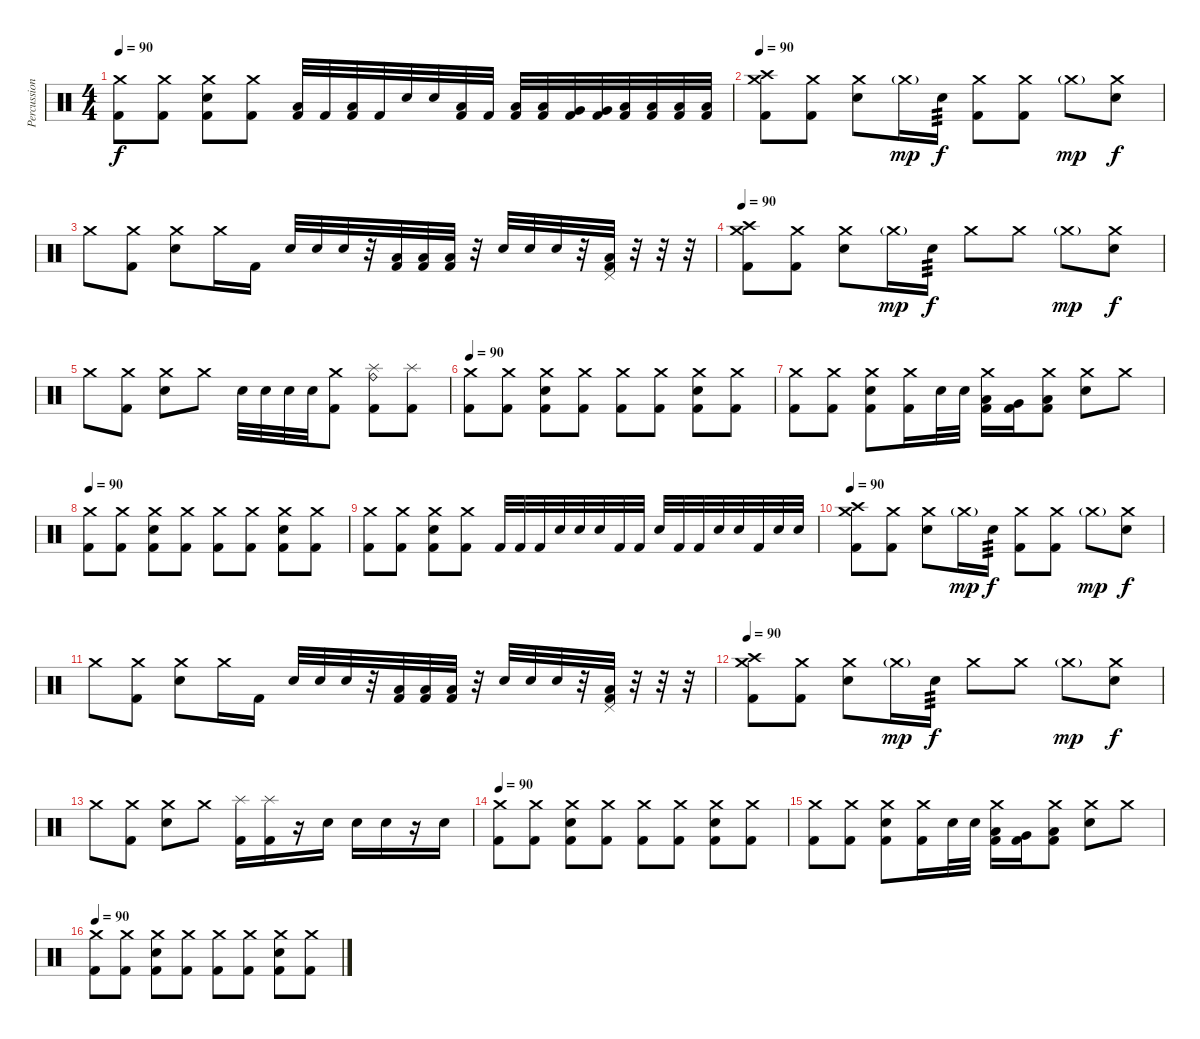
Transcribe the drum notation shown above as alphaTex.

\track ("Percussions" "Percussion") {instrument percussion}
\staff {score}
\articulation defaults
\ts (4 4)
\tempo 90
\clef neutral
\ks c
("Crash medium (hit)" "Kick (hit) 2").8{dy f} ("Crash medium (hit)" "Kick (hit) 2").8 ("Crash medium (hit)" "Electric Snare (hit)" "Kick (hit) 2").8 ("Crash medium (hit)" "Kick (hit) 2").8 ("Low Floor Tom (hit)" "Kick (hit) 2").32 "Kick (hit) 2".32 ("Low Floor Tom (hit)" "Kick (hit) 2").32 "Kick (hit) 2".32 "Electric Snare (hit)".32 "Electric Snare (hit)".32 ("Low Floor Tom (hit)" "Kick (hit) 2").32 "Kick (hit) 2".32 ("Low Tom (hit)" "Kick (hit) 2").32 ("Low Tom (hit)" "Kick (hit) 2").32 ("Very Low Tom (hit)" "Kick (hit) 2").32 ("Very Low Tom (hit)" "Kick (hit) 2").32 ("Low Floor Tom (hit)" "Kick (hit) 2").32 ("Low Floor Tom (hit)" "Kick (hit) 2").32 ("Low Floor Tom (hit)" "Kick (hit) 2").32 ("Low Floor Tom (hit)" "Kick (hit) 2").32 |
\tempo 90
("Crash medium (hit)" "Crash high (hit)" "Kick (hit) 2").8 ("Crash medium (hit)" "Kick (hit) 2").8 ("Crash medium (hit)" "Electric Snare (hit)").8 "Crash medium (hit)"{g}.16{dy mp} "Electric Snare (hit)".16{tp 3 dy f} ("Crash medium (hit)" "Kick (hit) 2").8 ("Crash medium (hit)" "Kick (hit) 2").8 "Crash medium (hit)"{g}.8{dy mp} ("Crash medium (hit)" "Electric Snare (hit)").8{dy f} |
"Crash medium (hit)".8 ("Crash medium (hit)" "Kick (hit) 2").8 ("Crash medium (hit)" "Electric Snare (hit)").8 "Crash medium (hit)".16 "Kick (hit) 2".16 "Electric Snare (hit)".32 "Electric Snare (hit)".32 "Electric Snare (hit)".32 r.32 ("Low Floor Tom (hit)" "Kick (hit) 2").32 ("Low Floor Tom (hit)" "Kick (hit) 2").32 ("Low Floor Tom (hit)" "Kick (hit) 2").32 r.32 "Electric Snare (hit)".32 "Electric Snare (hit)".32 "Electric Snare (hit)".32 r.32 ("Pedal Hi-Hat (hit)" "Low Floor Tom (hit)" "Kick (hit) 2").32 r.32 r.32 r.32 |
\tempo 90
("Crash medium (hit)" "Crash high (hit)" "Kick (hit) 2").8 ("Crash medium (hit)" "Kick (hit) 2").8 ("Crash medium (hit)" "Electric Snare (hit)").8 "Crash medium (hit)"{g}.16{dy mp} "Electric Snare (hit)".16{tp 3 dy f} "Crash medium (hit)".8 "Crash medium (hit)".8 "Crash medium (hit)"{g}.8{dy mp} ("Crash medium (hit)" "Electric Snare (hit)").8{dy f} |
"Crash medium (hit)".8 ("Crash medium (hit)" "Kick (hit) 2").8 ("Crash medium (hit)" "Electric Snare (hit)").8 "Crash medium (hit)".8 "Electric Snare (hit)".32 "Electric Snare (hit)".32 "Electric Snare (hit)".32 "Electric Snare (hit)".32 ("Crash medium (hit)" "Kick (hit) 2").8 ("Splash (hit)" "Ride (bell)" "Kick (hit) 2").8 ("Splash (hit)" "Kick (hit) 2").8 |
\tempo 90
("Crash medium (hit)" "Kick (hit) 2").8 ("Crash medium (hit)" "Kick (hit) 2").8 ("Crash medium (hit)" "Electric Snare (hit)" "Kick (hit) 2").8 ("Crash medium (hit)" "Kick (hit) 2").8 ("Crash medium (hit)" "Kick (hit) 2").8 ("Crash medium (hit)" "Kick (hit) 2").8 ("Crash medium (hit)" "Electric Snare (hit)" "Kick (hit) 2").8 ("Crash medium (hit)" "Kick (hit) 2").8 |
("Crash medium (hit)" "Kick (hit) 2").8 ("Crash medium (hit)" "Kick (hit) 2").8 ("Crash medium (hit)" "Electric Snare (hit)" "Kick (hit) 2").8 ("Crash medium (hit)" "Kick (hit) 2").16 "Electric Snare (hit)".32 "Electric Snare (hit)".32 ("Crash medium (hit)" "Low Tom (hit)" "Kick (hit) 2").16 ("Very Low Tom (hit)" "Kick (hit) 2").16 ("Crash medium (hit)" "Low Floor Tom (hit)" "Kick (hit) 2").8 ("Crash medium (hit)" "Electric Snare (hit)").8 "Crash medium (hit)".8 |
\tempo 90
("Crash medium (hit)" "Kick (hit) 2").8 ("Crash medium (hit)" "Kick (hit) 2").8 ("Crash medium (hit)" "Electric Snare (hit)" "Kick (hit) 2").8 ("Crash medium (hit)" "Kick (hit) 2").8 ("Crash medium (hit)" "Kick (hit) 2").8 ("Crash medium (hit)" "Kick (hit) 2").8 ("Crash medium (hit)" "Electric Snare (hit)" "Kick (hit) 2").8 ("Crash medium (hit)" "Kick (hit) 2").8 |
("Crash medium (hit)" "Kick (hit) 2").8 ("Crash medium (hit)" "Kick (hit) 2").8 ("Crash medium (hit)" "Electric Snare (hit)" "Kick (hit) 2").8 ("Crash medium (hit)" "Kick (hit) 2").8 "Kick (hit) 2".32 "Kick (hit) 2".32 "Kick (hit) 2".32 "Electric Snare (hit)".32 "Electric Snare (hit)".32 "Electric Snare (hit)".32 "Kick (hit) 2".32 "Kick (hit) 2".32 "Electric Snare (hit)".32 "Kick (hit) 2".32 "Kick (hit) 2".32 "Electric Snare (hit)".32 "Electric Snare (hit)".32 "Kick (hit) 2".32 "Electric Snare (hit)".32 "Electric Snare (hit)".32 |
\tempo 90
("Crash medium (hit)" "Crash high (hit)" "Kick (hit) 2").8 ("Crash medium (hit)" "Kick (hit) 2").8 ("Crash medium (hit)" "Electric Snare (hit)").8 "Crash medium (hit)"{g}.16{dy mp} "Electric Snare (hit)".16{tp 3 dy f} ("Crash medium (hit)" "Kick (hit) 2").8 ("Crash medium (hit)" "Kick (hit) 2").8 "Crash medium (hit)"{g}.8{dy mp} ("Crash medium (hit)" "Electric Snare (hit)").8{dy f} |
"Crash medium (hit)".8 ("Crash medium (hit)" "Kick (hit) 2").8 ("Crash medium (hit)" "Electric Snare (hit)").8 "Crash medium (hit)".16 "Kick (hit) 2".16 "Electric Snare (hit)".32 "Electric Snare (hit)".32 "Electric Snare (hit)".32 r.32 ("Low Floor Tom (hit)" "Kick (hit) 2").32 ("Low Floor Tom (hit)" "Kick (hit) 2").32 ("Low Floor Tom (hit)" "Kick (hit) 2").32 r.32 "Electric Snare (hit)".32 "Electric Snare (hit)".32 "Electric Snare (hit)".32 r.32 ("Pedal Hi-Hat (hit)" "Low Floor Tom (hit)" "Kick (hit) 2").32 r.32 r.32 r.32 |
\tempo 90
("Crash medium (hit)" "Crash high (hit)" "Kick (hit) 2").8 ("Crash medium (hit)" "Kick (hit) 2").8 ("Crash medium (hit)" "Electric Snare (hit)").8 "Crash medium (hit)"{g}.16{dy mp} "Electric Snare (hit)".16{tp 3 dy f} "Crash medium (hit)".8 "Crash medium (hit)".8 "Crash medium (hit)"{g}.8{dy mp} ("Crash medium (hit)" "Electric Snare (hit)").8{dy f} |
"Crash medium (hit)".8 ("Crash medium (hit)" "Kick (hit) 2").8 ("Crash medium (hit)" "Electric Snare (hit)").8 "Crash medium (hit)".8 ("Splash (hit)" "Kick (hit) 2").16 ("Splash (hit)" "Kick (hit) 2").16 r.16 "Electric Snare (hit)".16 "Electric Snare (hit)".16 "Electric Snare (hit)".16 r.16 "Electric Snare (hit)".16 |
\tempo 90
("Crash medium (hit)" "Kick (hit) 2").8 ("Crash medium (hit)" "Kick (hit) 2").8 ("Crash medium (hit)" "Electric Snare (hit)" "Kick (hit) 2").8 ("Crash medium (hit)" "Kick (hit) 2").8 ("Crash medium (hit)" "Kick (hit) 2").8 ("Crash medium (hit)" "Kick (hit) 2").8 ("Crash medium (hit)" "Electric Snare (hit)" "Kick (hit) 2").8 ("Crash medium (hit)" "Kick (hit) 2").8 |
("Crash medium (hit)" "Kick (hit) 2").8 ("Crash medium (hit)" "Kick (hit) 2").8 ("Crash medium (hit)" "Electric Snare (hit)" "Kick (hit) 2").8 ("Crash medium (hit)" "Kick (hit) 2").16 "Electric Snare (hit)".32 "Electric Snare (hit)".32 ("Crash medium (hit)" "Low Tom (hit)" "Kick (hit) 2").16 ("Very Low Tom (hit)" "Kick (hit) 2").16 ("Crash medium (hit)" "Low Floor Tom (hit)" "Kick (hit) 2").8 ("Crash medium (hit)" "Electric Snare (hit)").8 "Crash medium (hit)".8 |
\tempo 90
("Crash medium (hit)" "Kick (hit) 2").8 ("Crash medium (hit)" "Kick (hit) 2").8 ("Crash medium (hit)" "Electric Snare (hit)" "Kick (hit) 2").8 ("Crash medium (hit)" "Kick (hit) 2").8 ("Crash medium (hit)" "Kick (hit) 2").8 ("Crash medium (hit)" "Kick (hit) 2").8 ("Crash medium (hit)" "Electric Snare (hit)" "Kick (hit) 2").8 ("Crash medium (hit)" "Kick (hit) 2").8
